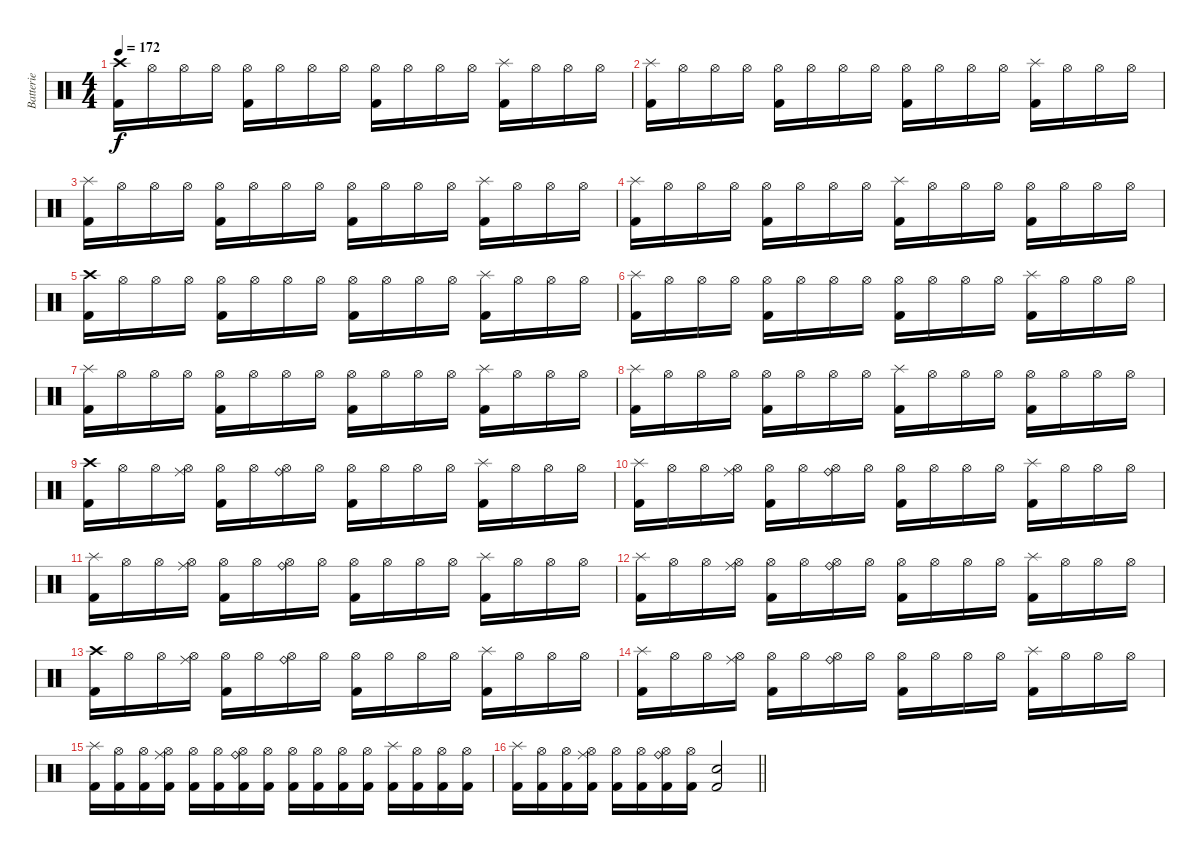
\track ("Batterie" "Batterie") {instrument percussion}
\staff {score}
\articulation defaults
\ts (4 4)
\tempo 172
\clef neutral
\ks c
("Crash high (hit)" "Kick (hit) 2").16{dy f} "Hi-Hat (open)".16 "Hi-Hat (open)".16 "Hi-Hat (open)".16 ("Hi-Hat (open)" "Kick (hit) 2").16 "Hi-Hat (open)".16 "Hi-Hat (open)".16 "Hi-Hat (open)".16 ("Hi-Hat (open)" "Kick (hit) 2").16 "Hi-Hat (open)".16 "Hi-Hat (open)".16 "Hi-Hat (open)".16 ("Splash (hit)" "Kick (hit) 2").16 "Hi-Hat (open)".16 "Hi-Hat (open)".16 "Hi-Hat (open)".16 |
("Splash (hit)" "Kick (hit) 2").16 "Hi-Hat (open)".16 "Hi-Hat (open)".16 "Hi-Hat (open)".16 ("Hi-Hat (open)" "Kick (hit) 2").16 "Hi-Hat (open)".16 "Hi-Hat (open)".16 "Hi-Hat (open)".16 ("Hi-Hat (open)" "Kick (hit) 2").16 "Hi-Hat (open)".16 "Hi-Hat (open)".16 "Hi-Hat (open)".16 ("Splash (hit)" "Kick (hit) 2").16 "Hi-Hat (open)".16 "Hi-Hat (open)".16 "Hi-Hat (open)".16 |
("Splash (hit)" "Kick (hit) 2").16 "Hi-Hat (open)".16 "Hi-Hat (open)".16 "Hi-Hat (open)".16 ("Hi-Hat (open)" "Kick (hit) 2").16 "Hi-Hat (open)".16 "Hi-Hat (open)".16 "Hi-Hat (open)".16 ("Hi-Hat (open)" "Kick (hit) 2").16 "Hi-Hat (open)".16 "Hi-Hat (open)".16 "Hi-Hat (open)".16 ("Splash (hit)" "Kick (hit) 2").16 "Hi-Hat (open)".16 "Hi-Hat (open)".16 "Hi-Hat (open)".16 |
("Splash (hit)" "Kick (hit) 2").16 "Hi-Hat (open)".16 "Hi-Hat (open)".16 "Hi-Hat (open)".16 ("Hi-Hat (open)" "Kick (hit) 2").16 "Hi-Hat (open)".16 "Hi-Hat (open)".16 "Hi-Hat (open)".16 ("Splash (hit)" "Kick (hit) 2").16 "Hi-Hat (open)".16 "Hi-Hat (open)".16 "Hi-Hat (open)".16 ("Hi-Hat (open)" "Kick (hit) 2").16 "Hi-Hat (open)".16 "Hi-Hat (open)".16 "Hi-Hat (open)".16 |
("Crash high (hit)" "Kick (hit) 2").16 "Hi-Hat (open)".16 "Hi-Hat (open)".16 "Hi-Hat (open)".16 ("Hi-Hat (open)" "Kick (hit) 2").16 "Hi-Hat (open)".16 "Hi-Hat (open)".16 "Hi-Hat (open)".16 ("Hi-Hat (open)" "Kick (hit) 2").16 "Hi-Hat (open)".16 "Hi-Hat (open)".16 "Hi-Hat (open)".16 ("Splash (hit)" "Kick (hit) 2").16 "Hi-Hat (open)".16 "Hi-Hat (open)".16 "Hi-Hat (open)".16 |
("Splash (hit)" "Kick (hit) 2").16 "Hi-Hat (open)".16 "Hi-Hat (open)".16 "Hi-Hat (open)".16 ("Hi-Hat (open)" "Kick (hit) 2").16 "Hi-Hat (open)".16 "Hi-Hat (open)".16 "Hi-Hat (open)".16 ("Hi-Hat (open)" "Kick (hit) 2").16 "Hi-Hat (open)".16 "Hi-Hat (open)".16 "Hi-Hat (open)".16 ("Splash (hit)" "Kick (hit) 2").16 "Hi-Hat (open)".16 "Hi-Hat (open)".16 "Hi-Hat (open)".16 |
("Splash (hit)" "Kick (hit) 2").16 "Hi-Hat (open)".16 "Hi-Hat (open)".16 "Hi-Hat (open)".16 ("Hi-Hat (open)" "Kick (hit) 2").16 "Hi-Hat (open)".16 "Hi-Hat (open)".16 "Hi-Hat (open)".16 ("Hi-Hat (open)" "Kick (hit) 2").16 "Hi-Hat (open)".16 "Hi-Hat (open)".16 "Hi-Hat (open)".16 ("Splash (hit)" "Kick (hit) 2").16 "Hi-Hat (open)".16 "Hi-Hat (open)".16 "Hi-Hat (open)".16 |
("Splash (hit)" "Kick (hit) 2").16 "Hi-Hat (open)".16 "Hi-Hat (open)".16 "Hi-Hat (open)".16 ("Hi-Hat (open)" "Kick (hit) 2").16 "Hi-Hat (open)".16 "Hi-Hat (open)".16 "Hi-Hat (open)".16 ("Splash (hit)" "Kick (hit) 2").16 "Hi-Hat (open)".16 "Hi-Hat (open)".16 "Hi-Hat (open)".16 ("Hi-Hat (open)" "Kick (hit) 2").16 "Hi-Hat (open)".16 "Hi-Hat (open)".16 "Hi-Hat (open)".16 |
("Crash high (hit)" "Kick (hit) 2").16 "Hi-Hat (open)".16 "Hi-Hat (open)".16 ("Ride (middle)" "Hi-Hat (open)").16 ("Hi-Hat (open)" "Kick (hit) 2").16 "Hi-Hat (open)".16 ("Ride (bell)" "Hi-Hat (open)").16 "Hi-Hat (open)".16 ("Hi-Hat (open)" "Kick (hit) 2").16 "Hi-Hat (open)".16 "Hi-Hat (open)".16 "Hi-Hat (open)".16 ("Splash (hit)" "Kick (hit) 2").16 "Hi-Hat (open)".16 "Hi-Hat (open)".16 "Hi-Hat (open)".16 |
("Splash (hit)" "Kick (hit) 2").16 "Hi-Hat (open)".16 "Hi-Hat (open)".16 ("Ride (middle)" "Hi-Hat (open)").16 ("Hi-Hat (open)" "Kick (hit) 2").16 "Hi-Hat (open)".16 ("Ride (bell)" "Hi-Hat (open)").16 "Hi-Hat (open)".16 ("Hi-Hat (open)" "Kick (hit) 2").16 "Hi-Hat (open)".16 "Hi-Hat (open)".16 "Hi-Hat (open)".16 ("Splash (hit)" "Kick (hit) 2").16 "Hi-Hat (open)".16 "Hi-Hat (open)".16 "Hi-Hat (open)".16 |
("Splash (hit)" "Kick (hit) 2").16 "Hi-Hat (open)".16 "Hi-Hat (open)".16 ("Ride (middle)" "Hi-Hat (open)").16 ("Hi-Hat (open)" "Kick (hit) 2").16 "Hi-Hat (open)".16 ("Ride (bell)" "Hi-Hat (open)").16 "Hi-Hat (open)".16 ("Hi-Hat (open)" "Kick (hit) 2").16 "Hi-Hat (open)".16 "Hi-Hat (open)".16 "Hi-Hat (open)".16 ("Splash (hit)" "Kick (hit) 2").16 "Hi-Hat (open)".16 "Hi-Hat (open)".16 "Hi-Hat (open)".16 |
("Splash (hit)" "Kick (hit) 2").16 "Hi-Hat (open)".16 "Hi-Hat (open)".16 ("Ride (middle)" "Hi-Hat (open)").16 ("Hi-Hat (open)" "Kick (hit) 2").16 "Hi-Hat (open)".16 ("Ride (bell)" "Hi-Hat (open)").16 "Hi-Hat (open)".16 ("Hi-Hat (open)" "Kick (hit) 2").16 "Hi-Hat (open)".16 "Hi-Hat (open)".16 "Hi-Hat (open)".16 ("Splash (hit)" "Kick (hit) 2").16 "Hi-Hat (open)".16 "Hi-Hat (open)".16 "Hi-Hat (open)".16 |
("Crash high (hit)" "Kick (hit) 2").16 "Hi-Hat (open)".16 "Hi-Hat (open)".16 ("Ride (middle)" "Hi-Hat (open)").16 ("Hi-Hat (open)" "Kick (hit) 2").16 "Hi-Hat (open)".16 ("Ride (bell)" "Hi-Hat (open)").16 "Hi-Hat (open)".16 ("Hi-Hat (open)" "Kick (hit) 2").16 "Hi-Hat (open)".16 "Hi-Hat (open)".16 "Hi-Hat (open)".16 ("Splash (hit)" "Kick (hit) 2").16 "Hi-Hat (open)".16 "Hi-Hat (open)".16 "Hi-Hat (open)".16 |
("Splash (hit)" "Kick (hit) 2").16 "Hi-Hat (open)".16 "Hi-Hat (open)".16 ("Ride (middle)" "Hi-Hat (open)").16 ("Hi-Hat (open)" "Kick (hit) 2").16 "Hi-Hat (open)".16 ("Ride (bell)" "Hi-Hat (open)").16 "Hi-Hat (open)".16 ("Hi-Hat (open)" "Kick (hit) 2").16 "Hi-Hat (open)".16 "Hi-Hat (open)".16 "Hi-Hat (open)".16 ("Splash (hit)" "Kick (hit) 2").16 "Hi-Hat (open)".16 "Hi-Hat (open)".16 "Hi-Hat (open)".16 |
("Splash (hit)" "Kick (hit) 2").16 ("Hi-Hat (open)" "Kick (hit) 2").16 ("Hi-Hat (open)" "Kick (hit) 2").16 ("Ride (middle)" "Hi-Hat (open)" "Kick (hit) 2").16 ("Hi-Hat (open)" "Kick (hit) 2").16 ("Hi-Hat (open)" "Kick (hit) 2").16 ("Ride (bell)" "Hi-Hat (open)" "Kick (hit) 2").16 ("Hi-Hat (open)" "Kick (hit) 2").16 ("Hi-Hat (open)" "Kick (hit) 2").16 ("Hi-Hat (open)" "Kick (hit) 2").16 ("Hi-Hat (open)" "Kick (hit) 2").16 ("Hi-Hat (open)" "Kick (hit) 2").16 ("Splash (hit)" "Kick (hit) 2").16 ("Hi-Hat (open)" "Kick (hit) 2").16 ("Hi-Hat (open)" "Kick (hit) 2").16 ("Hi-Hat (open)" "Kick (hit) 2").16 |
\barLineRight lightlight
("Splash (hit)" "Kick (hit) 2").16 ("Hi-Hat (open)" "Kick (hit) 2").16 ("Hi-Hat (open)" "Kick (hit) 2").16 ("Ride (middle)" "Hi-Hat (open)" "Kick (hit) 2").16 ("Hi-Hat (open)" "Kick (hit) 2").16 ("Hi-Hat (open)" "Kick (hit) 2").16 ("Ride (bell)" "Hi-Hat (open)" "Kick (hit) 2").16 ("Hi-Hat (open)" "Kick (hit) 2").16 ("Electric Snare (hit)" "Kick (hit) 2").2
